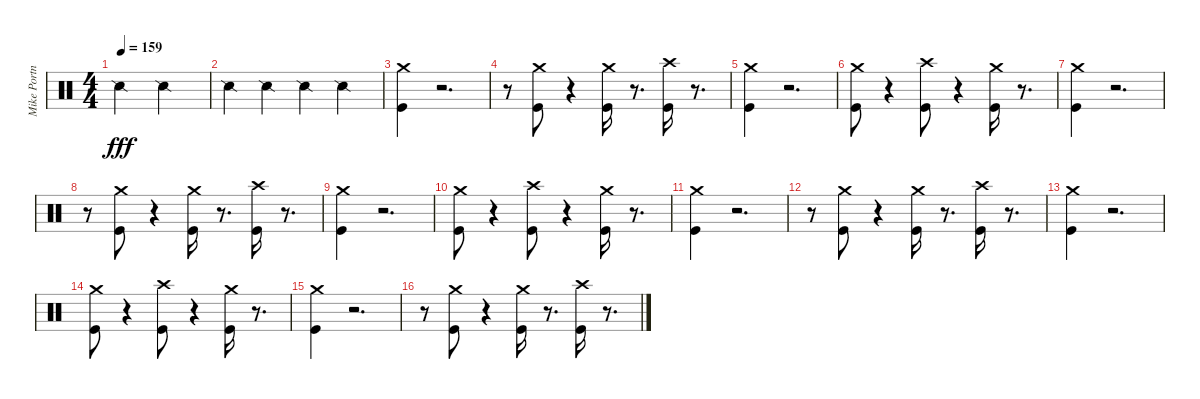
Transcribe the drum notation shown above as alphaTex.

\track ("Mike Portnoy" "Mike Portn") {instrument percussion}
\staff {score}
\articulation defaults
\ts (4 4)
\tempo 159
\clef neutral
\ks c "Snare (side stick) 2".2{dy fff} "Snare (side stick) 2".2
|
"Snare (side stick) 2".4 "Snare (side stick) 2".4 "Snare (side stick) 2".4 "Snare (side stick) 2".4 |
("Crash medium (hit)" "Kick (hit)").4 r.2{d} |
r.8 ("Crash medium (hit)" "Kick (hit)").8 r.4 ("Crash medium (hit)" "Kick (hit)").16 r.8{d} ("Crash high (hit)" "Kick (hit)").16 r.8{d} |
("Crash medium (hit)" "Kick (hit)").4 r.2{d} |
("Crash medium (hit)" "Kick (hit)").8 r.4 ("Crash high (hit)" "Kick (hit)").8 r.4 ("Crash medium (hit)" "Kick (hit)").16 r.8{d} |
("Crash medium (hit)" "Kick (hit)").4 r.2{d} |
r.8 ("Crash medium (hit)" "Kick (hit)").8 r.4 ("Crash medium (hit)" "Kick (hit)").16 r.8{d} ("Crash high (hit)" "Kick (hit)").16 r.8{d} |
("Crash medium (hit)" "Kick (hit)").4 r.2{d} |
("Crash medium (hit)" "Kick (hit)").8 r.4 ("Crash high (hit)" "Kick (hit)").8 r.4 ("Crash medium (hit)" "Kick (hit)").16 r.8{d} |
("Crash medium (hit)" "Kick (hit)").4 r.2{d} |
r.8 ("Crash medium (hit)" "Kick (hit)").8 r.4 ("Crash medium (hit)" "Kick (hit)").16 r.8{d} ("Crash high (hit)" "Kick (hit)").16 r.8{d} |
("Crash medium (hit)" "Kick (hit)").4 r.2{d} |
("Crash medium (hit)" "Kick (hit)").8 r.4 ("Crash high (hit)" "Kick (hit)").8 r.4 ("Crash medium (hit)" "Kick (hit)").16 r.8{d} |
("Crash medium (hit)" "Kick (hit)").4 r.2{d} |
r.8 ("Crash medium (hit)" "Kick (hit)").8 r.4 ("Crash medium (hit)" "Kick (hit)").16 r.8{d} ("Crash high (hit)" "Kick (hit)").16 r.8{d}
